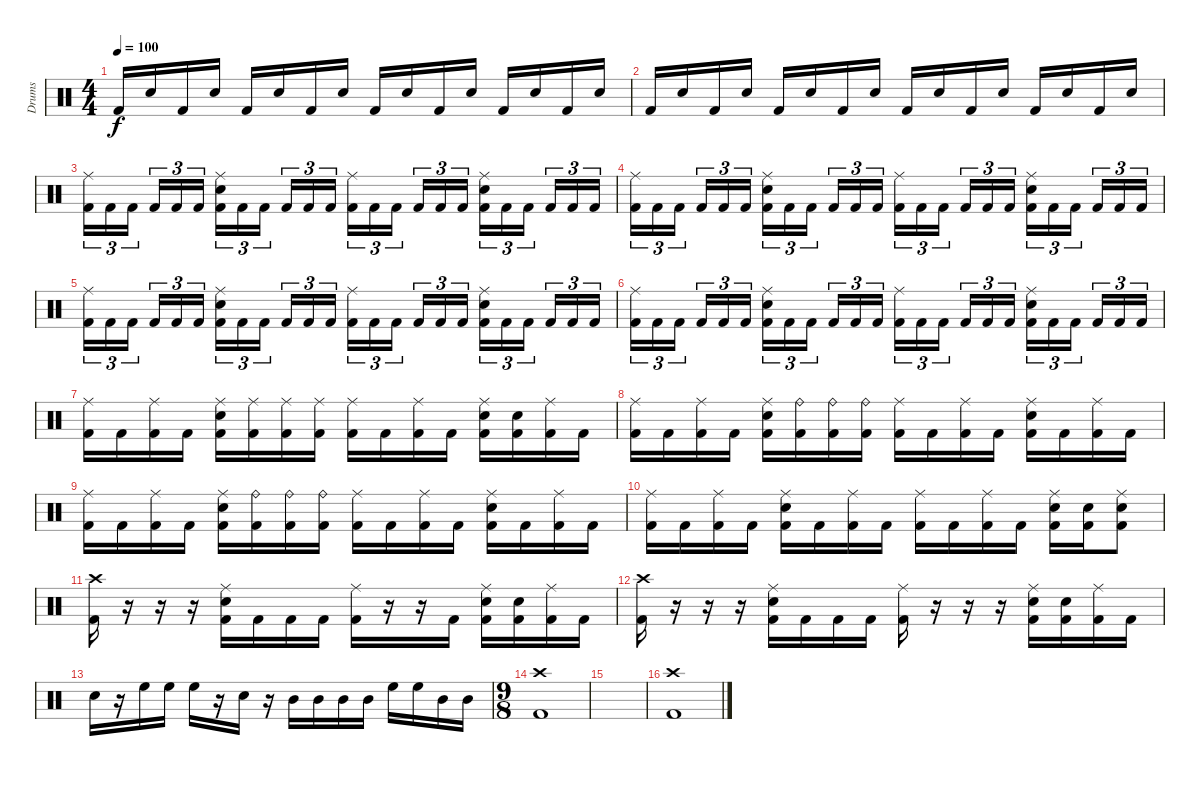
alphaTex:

\track ("Drums" "Drums") {instrument percussion}
\staff {score}
\articulation defaults
\ts (4 4)
\tempo 100
\clef neutral
\ks c "Kick (hit) 2".16{dy f} "Snare (hit) 2".16 "Kick (hit) 2".16 "Snare (hit) 2".16 "Kick (hit) 2".16 "Snare (hit) 2".16 "Kick (hit) 2".16 "Snare (hit) 2".16 "Kick (hit) 2".16 "Snare (hit) 2".16 "Kick (hit) 2".16 "Snare (hit) 2".16 "Kick (hit) 2".16 "Snare (hit) 2".16 "Kick (hit) 2".16 "Snare (hit) 2".16
|
"Kick (hit) 2".16 "Snare (hit) 2".16 "Kick (hit) 2".16 "Snare (hit) 2".16 "Kick (hit) 2".16 "Snare (hit) 2".16 "Kick (hit) 2".16 "Snare (hit) 2".16 "Kick (hit) 2".16 "Snare (hit) 2".16 "Kick (hit) 2".16 "Snare (hit) 2".16 "Kick (hit) 2".16 "Snare (hit) 2".16 "Kick (hit) 2".16 "Snare (hit) 2".16 |
("Ride (middle)" "Kick (hit) 2").16{tu (3 2)} "Kick (hit) 2".16{tu (3 2)} "Kick (hit) 2".16{tu (3 2)} "Kick (hit) 2".16{tu (3 2)} "Kick (hit) 2".16{tu (3 2)} "Kick (hit) 2".16{tu (3 2)} ("Ride (middle)" "Snare (hit) 2" "Kick (hit) 2").16{tu (3 2)} "Kick (hit) 2".16{tu (3 2)} "Kick (hit) 2".16{tu (3 2)} "Kick (hit) 2".16{tu (3 2)} "Kick (hit) 2".16{tu (3 2)} "Kick (hit) 2".16{tu (3 2)} ("Ride (middle)" "Kick (hit) 2").16{tu (3 2)} "Kick (hit) 2".16{tu (3 2)} "Kick (hit) 2".16{tu (3 2)} "Kick (hit) 2".16{tu (3 2)} "Kick (hit) 2".16{tu (3 2)} "Kick (hit) 2".16{tu (3 2)} ("Ride (middle)" "Snare (hit) 2" "Kick (hit) 2").16{tu (3 2)} "Kick (hit) 2".16{tu (3 2)} "Kick (hit) 2".16{tu (3 2)} "Kick (hit) 2".16{tu (3 2)} "Kick (hit) 2".16{tu (3 2)} "Kick (hit) 2".16{tu (3 2)} |
("Ride (middle)" "Kick (hit) 2").16{tu (3 2)} "Kick (hit) 2".16{tu (3 2)} "Kick (hit) 2".16{tu (3 2)} "Kick (hit) 2".16{tu (3 2)} "Kick (hit) 2".16{tu (3 2)} "Kick (hit) 2".16{tu (3 2)} ("Ride (middle)" "Snare (hit) 2" "Kick (hit) 2").16{tu (3 2)} "Kick (hit) 2".16{tu (3 2)} "Kick (hit) 2".16{tu (3 2)} "Kick (hit) 2".16{tu (3 2)} "Kick (hit) 2".16{tu (3 2)} "Kick (hit) 2".16{tu (3 2)} ("Ride (middle)" "Kick (hit) 2").16{tu (3 2)} "Kick (hit) 2".16{tu (3 2)} "Kick (hit) 2".16{tu (3 2)} "Kick (hit) 2".16{tu (3 2)} "Kick (hit) 2".16{tu (3 2)} "Kick (hit) 2".16{tu (3 2)} ("Ride (middle)" "Snare (hit) 2" "Kick (hit) 2").16{tu (3 2)} "Kick (hit) 2".16{tu (3 2)} "Kick (hit) 2".16{tu (3 2)} "Kick (hit) 2".16{tu (3 2)} "Kick (hit) 2".16{tu (3 2)} "Kick (hit) 2".16{tu (3 2)} |
("Ride (middle)" "Kick (hit) 2").16{tu (3 2)} "Kick (hit) 2".16{tu (3 2)} "Kick (hit) 2".16{tu (3 2)} "Kick (hit) 2".16{tu (3 2)} "Kick (hit) 2".16{tu (3 2)} "Kick (hit) 2".16{tu (3 2)} ("Ride (middle)" "Snare (hit) 2" "Kick (hit) 2").16{tu (3 2)} "Kick (hit) 2".16{tu (3 2)} "Kick (hit) 2".16{tu (3 2)} "Kick (hit) 2".16{tu (3 2)} "Kick (hit) 2".16{tu (3 2)} "Kick (hit) 2".16{tu (3 2)} ("Ride (middle)" "Kick (hit) 2").16{tu (3 2)} "Kick (hit) 2".16{tu (3 2)} "Kick (hit) 2".16{tu (3 2)} "Kick (hit) 2".16{tu (3 2)} "Kick (hit) 2".16{tu (3 2)} "Kick (hit) 2".16{tu (3 2)} ("Ride (middle)" "Snare (hit) 2" "Kick (hit) 2").16{tu (3 2)} "Kick (hit) 2".16{tu (3 2)} "Kick (hit) 2".16{tu (3 2)} "Kick (hit) 2".16{tu (3 2)} "Kick (hit) 2".16{tu (3 2)} "Kick (hit) 2".16{tu (3 2)} |
("Ride (middle)" "Kick (hit) 2").16{tu (3 2)} "Kick (hit) 2".16{tu (3 2)} "Kick (hit) 2".16{tu (3 2)} "Kick (hit) 2".16{tu (3 2)} "Kick (hit) 2".16{tu (3 2)} "Kick (hit) 2".16{tu (3 2)} ("Ride (middle)" "Snare (hit) 2" "Kick (hit) 2").16{tu (3 2)} "Kick (hit) 2".16{tu (3 2)} "Kick (hit) 2".16{tu (3 2)} "Kick (hit) 2".16{tu (3 2)} "Kick (hit) 2".16{tu (3 2)} "Kick (hit) 2".16{tu (3 2)} ("Ride (middle)" "Kick (hit) 2").16{tu (3 2)} "Kick (hit) 2".16{tu (3 2)} "Kick (hit) 2".16{tu (3 2)} "Kick (hit) 2".16{tu (3 2)} "Kick (hit) 2".16{tu (3 2)} "Kick (hit) 2".16{tu (3 2)} ("Ride (middle)" "Snare (hit) 2" "Kick (hit) 2").16{tu (3 2)} "Kick (hit) 2".16{tu (3 2)} "Kick (hit) 2".16{tu (3 2)} "Kick (hit) 2".16{tu (3 2)} "Kick (hit) 2".16{tu (3 2)} "Kick (hit) 2".16{tu (3 2)} |
("Ride (middle)" "Kick (hit) 2").16 "Kick (hit) 2".16 ("Ride (middle)" "Kick (hit) 2").16 "Kick (hit) 2".16 ("Ride (middle)" "Snare (hit) 2" "Kick (hit) 2").16 ("Ride (middle)" "Kick (hit) 2").16 ("Ride (middle)" "Kick (hit) 2").16 ("Ride (middle)" "Kick (hit) 2").16 ("Ride (middle)" "Kick (hit) 2").16 "Kick (hit) 2".16 ("Ride (middle)" "Kick (hit) 2").16 "Kick (hit) 2".16 ("Ride (middle)" "Snare (hit) 2" "Kick (hit) 2").16 ("Snare (hit) 2" "Kick (hit) 2").16 ("Ride (middle)" "Kick (hit) 2").16 "Kick (hit) 2".16 |
("Ride (middle)" "Kick (hit) 2").16 "Kick (hit) 2".16 ("Ride (middle)" "Kick (hit) 2").16 "Kick (hit) 2".16 ("Ride (middle)" "Snare (hit) 2" "Kick (hit) 2").16 ("Ride (bell)" "Kick (hit) 2").16 ("Ride (bell)" "Kick (hit) 2").16 ("Ride (bell)" "Kick (hit) 2").16 ("Ride (middle)" "Kick (hit) 2").16 "Kick (hit) 2".16 ("Ride (middle)" "Kick (hit) 2").16 "Kick (hit) 2".16 ("Ride (middle)" "Snare (hit) 2" "Kick (hit) 2").16 "Kick (hit) 2".16 ("Ride (middle)" "Kick (hit) 2").16 "Kick (hit) 2".16 |
("Ride (middle)" "Kick (hit) 2").16 "Kick (hit) 2".16 ("Ride (middle)" "Kick (hit) 2").16 "Kick (hit) 2".16 ("Ride (middle)" "Snare (hit) 2" "Kick (hit) 2").16 ("Ride (bell)" "Kick (hit) 2").16 ("Ride (bell)" "Kick (hit) 2").16 ("Ride (bell)" "Kick (hit) 2").16 ("Ride (middle)" "Kick (hit) 2").16 "Kick (hit) 2".16 ("Ride (middle)" "Kick (hit) 2").16 "Kick (hit) 2".16 ("Ride (middle)" "Snare (hit) 2" "Kick (hit) 2").16 "Kick (hit) 2".16 ("Ride (middle)" "Kick (hit) 2").16 "Kick (hit) 2".16 |
("Ride (middle)" "Kick (hit) 2").16 "Kick (hit) 2".16 ("Ride (middle)" "Kick (hit) 2").16 "Kick (hit) 2".16 ("Ride (middle)" "Snare (hit) 2" "Kick (hit) 2").16 "Kick (hit) 2".16 ("Ride (middle)" "Kick (hit) 2").16 "Kick (hit) 2".16 ("Ride (middle)" "Kick (hit) 2").16 "Kick (hit) 2".16 ("Ride (middle)" "Kick (hit) 2").16 "Kick (hit) 2".16 ("Ride (middle)" "Snare (hit) 2" "Kick (hit) 2").16 ("Snare (hit) 2" "Kick (hit) 2").16 ("Ride (middle)" "Snare (hit) 2" "Kick (hit) 2").8 |
("Crash high (hit)" "Kick (hit) 2").16 r.16 r.16 r.16 ("Ride (middle)" "Snare (hit) 2" "Kick (hit) 2").16 "Kick (hit) 2".16 "Kick (hit) 2".16 "Kick (hit) 2".16 ("Ride (middle)" "Kick (hit) 2").16 r.16 r.16 "Kick (hit) 2".16 ("Ride (middle)" "Snare (hit) 2" "Kick (hit) 2").16 ("Snare (hit) 2" "Kick (hit) 2").16 ("Ride (middle)" "Kick (hit) 2").16 "Kick (hit) 2".16 |
("Crash high (hit)" "Kick (hit) 2").16 r.16 r.16 r.16 ("Ride (middle)" "Snare (hit) 2" "Kick (hit) 2").16 "Kick (hit) 2".16 "Kick (hit) 2".16 "Kick (hit) 2".16 ("Ride (middle)" "Kick (hit) 2").16 r.16 r.16 r.16 ("Ride (middle)" "Snare (hit) 2" "Kick (hit) 2").16 ("Snare (hit) 2" "Kick (hit) 2").16 ("Ride (middle)" "Kick (hit) 2").16 "Kick (hit) 2".16 |
"Snare (hit) 2".16 r.16 "High Floor Tom (hit)".16 "High Floor Tom (hit)".16 "High Floor Tom (hit)".16 r.16 "Snare (hit) 2".16 r.16 "Mid Tom (hit)".16 "Mid Tom (hit)".16 "Mid Tom (hit)".16 "Mid Tom (hit)".16 "High Floor Tom (hit)".16 "High Floor Tom (hit)".16 "Mid Tom (hit)".16 "Mid Tom (hit)".16 |
\ts (9 8)
("Crash high (hit)" "Kick (hit) 2").1 |
|
("Crash high (hit)" "Kick (hit) 2").1
